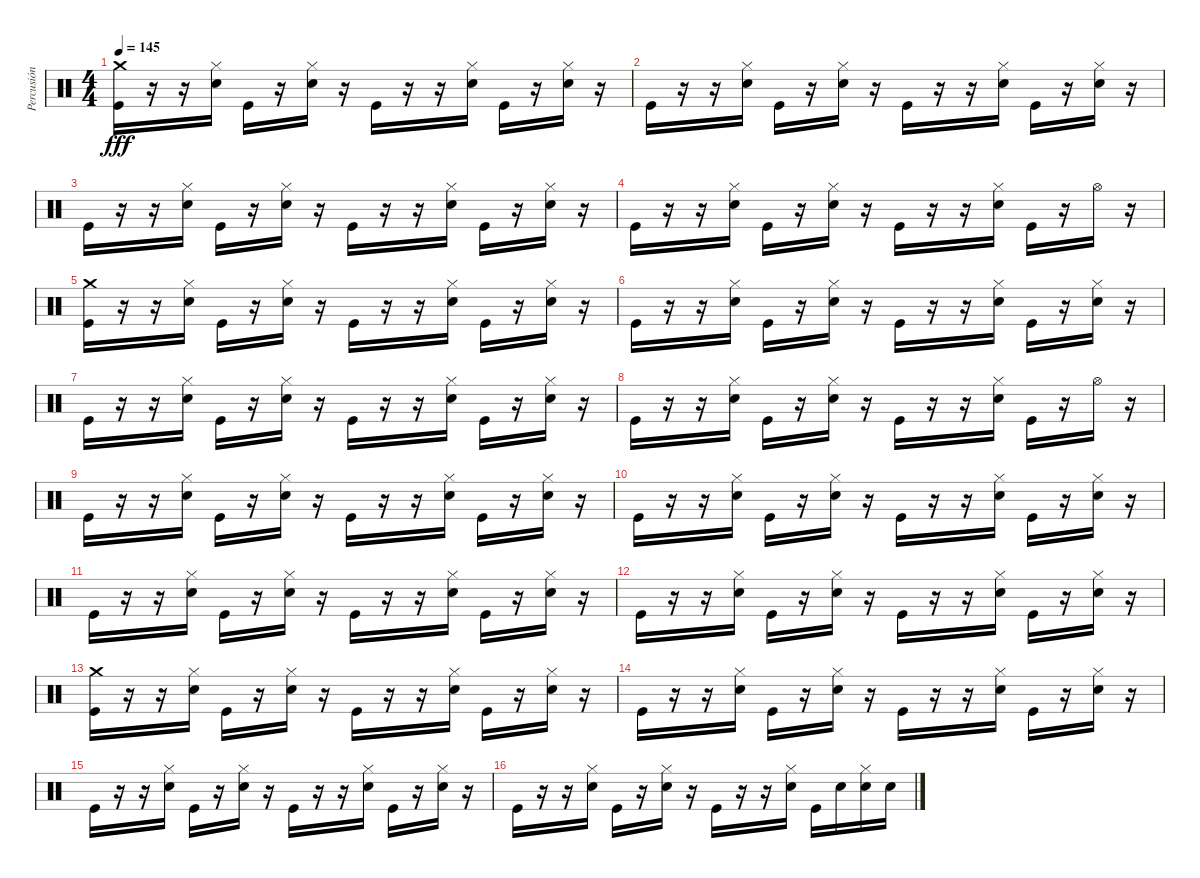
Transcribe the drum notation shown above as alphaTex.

\track ("Percusión" "Percusión") {instrument percussion}
\staff {score}
\articulation defaults
\ts (4 4)
\tempo 145
\clef neutral
\ks c
("Crash medium (hit)" "Kick (hit)").16{dy fff} r.16 r.16 ("Hi-Hat (closed)" "Electric Snare (hit)").16 "Kick (hit)".16 r.16 ("Hi-Hat (closed)" "Electric Snare (hit)").16 r.16 "Kick (hit)".16 r.16 r.16 ("Hi-Hat (closed)" "Electric Snare (hit)").16 "Kick (hit)".16 r.16 ("Hi-Hat (closed)" "Electric Snare (hit)").16 r.16 |
"Kick (hit)".16 r.16 r.16 ("Hi-Hat (closed)" "Electric Snare (hit)").16 "Kick (hit)".16 r.16 ("Hi-Hat (closed)" "Electric Snare (hit)").16 r.16 "Kick (hit)".16 r.16 r.16 ("Hi-Hat (closed)" "Electric Snare (hit)").16 "Kick (hit)".16 r.16 ("Hi-Hat (closed)" "Electric Snare (hit)").16 r.16 |
"Kick (hit)".16 r.16 r.16 ("Hi-Hat (closed)" "Electric Snare (hit)").16 "Kick (hit)".16 r.16 ("Hi-Hat (closed)" "Electric Snare (hit)").16 r.16 "Kick (hit)".16 r.16 r.16 ("Hi-Hat (closed)" "Electric Snare (hit)").16 "Kick (hit)".16 r.16 ("Hi-Hat (closed)" "Electric Snare (hit)").16 r.16 |
"Kick (hit)".16 r.16 r.16 ("Hi-Hat (closed)" "Electric Snare (hit)").16 "Kick (hit)".16 r.16 ("Hi-Hat (closed)" "Electric Snare (hit)").16 r.16 "Kick (hit)".16 r.16 r.16 ("Hi-Hat (closed)" "Electric Snare (hit)").16 "Kick (hit)".16 r.16 "Hi-Hat (open)".16 r.16 |
("Crash medium (hit)" "Kick (hit)").16 r.16 r.16 ("Hi-Hat (closed)" "Electric Snare (hit)").16 "Kick (hit)".16 r.16 ("Hi-Hat (closed)" "Electric Snare (hit)").16 r.16 "Kick (hit)".16 r.16 r.16 ("Hi-Hat (closed)" "Electric Snare (hit)").16 "Kick (hit)".16 r.16 ("Hi-Hat (closed)" "Electric Snare (hit)").16 r.16 |
"Kick (hit)".16 r.16 r.16 ("Hi-Hat (closed)" "Electric Snare (hit)").16 "Kick (hit)".16 r.16 ("Hi-Hat (closed)" "Electric Snare (hit)").16 r.16 "Kick (hit)".16 r.16 r.16 ("Hi-Hat (closed)" "Electric Snare (hit)").16 "Kick (hit)".16 r.16 ("Hi-Hat (closed)" "Electric Snare (hit)").16 r.16 |
"Kick (hit)".16 r.16 r.16 ("Hi-Hat (closed)" "Electric Snare (hit)").16 "Kick (hit)".16 r.16 ("Hi-Hat (closed)" "Electric Snare (hit)").16 r.16 "Kick (hit)".16 r.16 r.16 ("Hi-Hat (closed)" "Electric Snare (hit)").16 "Kick (hit)".16 r.16 ("Hi-Hat (closed)" "Electric Snare (hit)").16 r.16 |
"Kick (hit)".16 r.16 r.16 ("Hi-Hat (closed)" "Electric Snare (hit)").16 "Kick (hit)".16 r.16 ("Hi-Hat (closed)" "Electric Snare (hit)").16 r.16 "Kick (hit)".16 r.16 r.16 ("Hi-Hat (closed)" "Electric Snare (hit)").16 "Kick (hit)".16 r.16 "Hi-Hat (open)".16 r.16 |
"Kick (hit)".16 r.16 r.16 ("Hi-Hat (closed)" "Electric Snare (hit)").16 "Kick (hit)".16 r.16 ("Hi-Hat (closed)" "Electric Snare (hit)").16 r.16 "Kick (hit)".16 r.16 r.16 ("Hi-Hat (closed)" "Electric Snare (hit)").16 "Kick (hit)".16 r.16 ("Hi-Hat (closed)" "Electric Snare (hit)").16 r.16 |
"Kick (hit)".16 r.16 r.16 ("Hi-Hat (closed)" "Electric Snare (hit)").16 "Kick (hit)".16 r.16 ("Hi-Hat (closed)" "Electric Snare (hit)").16 r.16 "Kick (hit)".16 r.16 r.16 ("Hi-Hat (closed)" "Electric Snare (hit)").16 "Kick (hit)".16 r.16 ("Hi-Hat (closed)" "Electric Snare (hit)").16 r.16 |
"Kick (hit)".16 r.16 r.16 ("Hi-Hat (closed)" "Electric Snare (hit)").16 "Kick (hit)".16 r.16 ("Hi-Hat (closed)" "Electric Snare (hit)").16 r.16 "Kick (hit)".16 r.16 r.16 ("Hi-Hat (closed)" "Electric Snare (hit)").16 "Kick (hit)".16 r.16 ("Hi-Hat (closed)" "Electric Snare (hit)").16 r.16 |
"Kick (hit)".16 r.16 r.16 ("Hi-Hat (closed)" "Electric Snare (hit)").16 "Kick (hit)".16 r.16 ("Hi-Hat (closed)" "Electric Snare (hit)").16 r.16 "Kick (hit)".16 r.16 r.16 ("Hi-Hat (closed)" "Electric Snare (hit)").16 "Kick (hit)".16 r.16 ("Hi-Hat (closed)" "Electric Snare (hit)").16 r.16 |
("Crash medium (hit)" "Kick (hit)").16 r.16 r.16 ("Hi-Hat (closed)" "Electric Snare (hit)").16 "Kick (hit)".16 r.16 ("Hi-Hat (closed)" "Electric Snare (hit)").16 r.16 "Kick (hit)".16 r.16 r.16 ("Hi-Hat (closed)" "Electric Snare (hit)").16 "Kick (hit)".16 r.16 ("Hi-Hat (closed)" "Electric Snare (hit)").16 r.16 |
"Kick (hit)".16 r.16 r.16 ("Hi-Hat (closed)" "Electric Snare (hit)").16 "Kick (hit)".16 r.16 ("Hi-Hat (closed)" "Electric Snare (hit)").16 r.16 "Kick (hit)".16 r.16 r.16 ("Hi-Hat (closed)" "Electric Snare (hit)").16 "Kick (hit)".16 r.16 ("Hi-Hat (closed)" "Electric Snare (hit)").16 r.16 |
"Kick (hit)".16 r.16 r.16 ("Hi-Hat (closed)" "Electric Snare (hit)").16 "Kick (hit)".16 r.16 ("Hi-Hat (closed)" "Electric Snare (hit)").16 r.16 "Kick (hit)".16 r.16 r.16 ("Hi-Hat (closed)" "Electric Snare (hit)").16 "Kick (hit)".16 r.16 ("Hi-Hat (closed)" "Electric Snare (hit)").16 r.16 |
"Kick (hit)".16 r.16 r.16 ("Hi-Hat (closed)" "Electric Snare (hit)").16 "Kick (hit)".16 r.16 ("Hi-Hat (closed)" "Electric Snare (hit)").16 r.16 "Kick (hit)".16 r.16 r.16 ("Hi-Hat (closed)" "Electric Snare (hit)").16 "Kick (hit)".16 "Electric Snare (hit)".16 ("Hi-Hat (closed)" "Electric Snare (hit)").16 "Electric Snare (hit)".16
